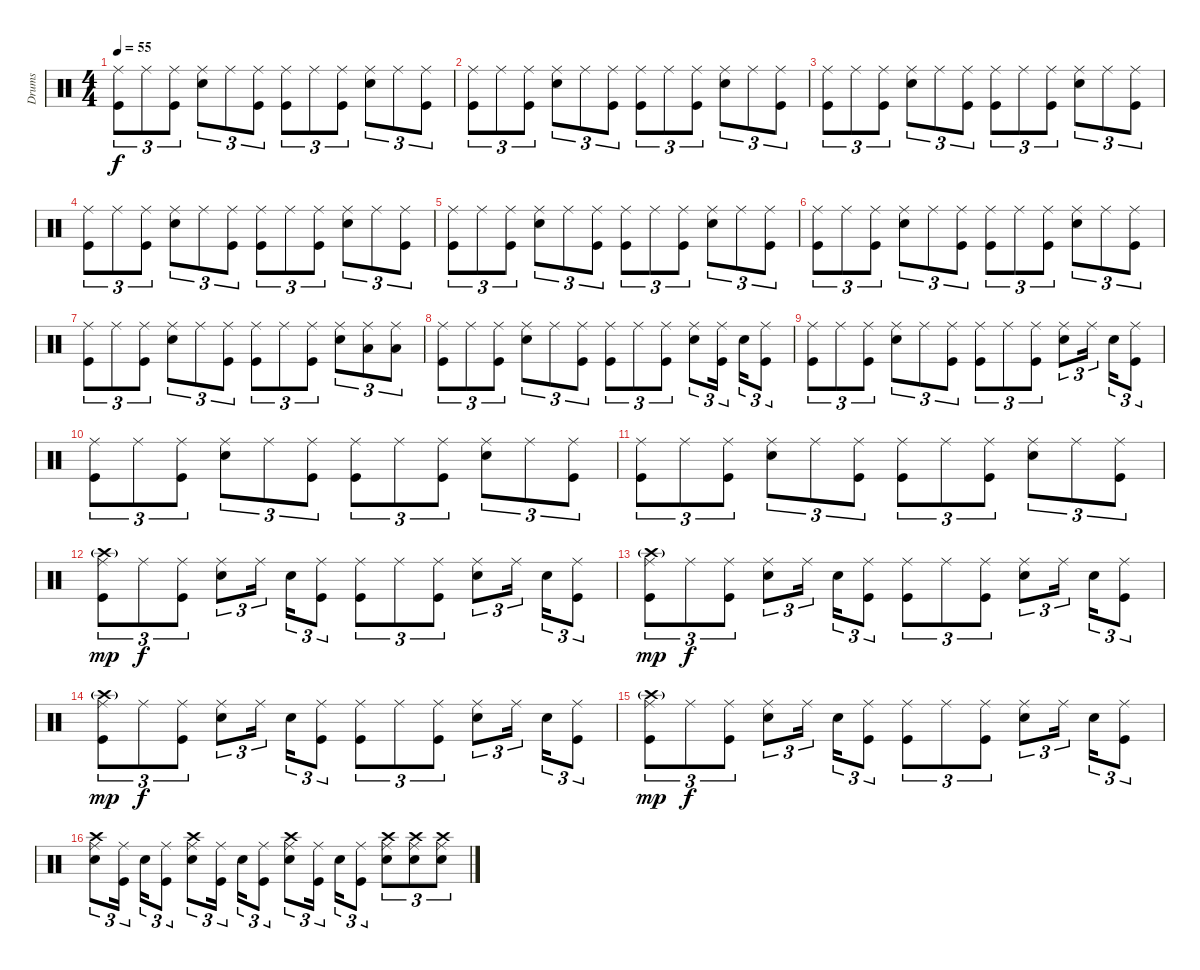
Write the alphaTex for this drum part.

\track ("Drums" "Drums") {instrument percussion}
\staff {score}
\articulation defaults
\ts (4 4)
\tempo 55
\clef neutral
\ks c
("Ride (middle)" "Kick (hit)").8{tu (3 2) dy f} "Ride (middle)".8{tu (3 2)} ("Ride (middle)" "Kick (hit)").8{tu (3 2)} ("Ride (middle)" "Snare (hit) 2").8{tu (3 2)} "Ride (middle)".8{tu (3 2)} ("Ride (middle)" "Kick (hit)").8{tu (3 2)} ("Ride (middle)" "Kick (hit)").8{tu (3 2)} "Ride (middle)".8{tu (3 2)} ("Ride (middle)" "Kick (hit)").8{tu (3 2)} ("Ride (middle)" "Snare (hit) 2").8{tu (3 2)} "Ride (middle)".8{tu (3 2)} ("Ride (middle)" "Kick (hit)").8{tu (3 2)} |
("Ride (middle)" "Kick (hit)").8{tu (3 2)} "Ride (middle)".8{tu (3 2)} ("Ride (middle)" "Kick (hit)").8{tu (3 2)} ("Ride (middle)" "Snare (hit) 2").8{tu (3 2)} "Ride (middle)".8{tu (3 2)} ("Ride (middle)" "Kick (hit)").8{tu (3 2)} ("Ride (middle)" "Kick (hit)").8{tu (3 2)} "Ride (middle)".8{tu (3 2)} ("Ride (middle)" "Kick (hit)").8{tu (3 2)} ("Ride (middle)" "Snare (hit) 2").8{tu (3 2)} "Ride (middle)".8{tu (3 2)} ("Ride (middle)" "Kick (hit)").8{tu (3 2)} |
("Ride (middle)" "Kick (hit)").8{tu (3 2)} "Ride (middle)".8{tu (3 2)} ("Ride (middle)" "Kick (hit)").8{tu (3 2)} ("Ride (middle)" "Snare (hit) 2").8{tu (3 2)} "Ride (middle)".8{tu (3 2)} ("Ride (middle)" "Kick (hit)").8{tu (3 2)} ("Ride (middle)" "Kick (hit)").8{tu (3 2)} "Ride (middle)".8{tu (3 2)} ("Ride (middle)" "Kick (hit)").8{tu (3 2)} ("Ride (middle)" "Snare (hit) 2").8{tu (3 2)} "Ride (middle)".8{tu (3 2)} ("Ride (middle)" "Kick (hit)").8{tu (3 2)} |
("Ride (middle)" "Kick (hit)").8{tu (3 2)} "Ride (middle)".8{tu (3 2)} ("Ride (middle)" "Kick (hit)").8{tu (3 2)} ("Ride (middle)" "Snare (hit) 2").8{tu (3 2)} "Ride (middle)".8{tu (3 2)} ("Ride (middle)" "Kick (hit)").8{tu (3 2)} ("Ride (middle)" "Kick (hit)").8{tu (3 2)} "Ride (middle)".8{tu (3 2)} ("Ride (middle)" "Kick (hit)").8{tu (3 2)} ("Ride (middle)" "Snare (hit) 2").8{tu (3 2)} "Ride (middle)".8{tu (3 2)} ("Ride (middle)" "Kick (hit)").8{tu (3 2)} |
("Ride (middle)" "Kick (hit)").8{tu (3 2)} "Ride (middle)".8{tu (3 2)} ("Ride (middle)" "Kick (hit)").8{tu (3 2)} ("Ride (middle)" "Snare (hit) 2").8{tu (3 2)} "Ride (middle)".8{tu (3 2)} ("Ride (middle)" "Kick (hit)").8{tu (3 2)} ("Ride (middle)" "Kick (hit)").8{tu (3 2)} "Ride (middle)".8{tu (3 2)} ("Ride (middle)" "Kick (hit)").8{tu (3 2)} ("Ride (middle)" "Snare (hit) 2").8{tu (3 2)} "Ride (middle)".8{tu (3 2)} ("Ride (middle)" "Kick (hit)").8{tu (3 2)} |
("Ride (middle)" "Kick (hit)").8{tu (3 2)} "Ride (middle)".8{tu (3 2)} ("Ride (middle)" "Kick (hit)").8{tu (3 2)} ("Ride (middle)" "Snare (hit) 2").8{tu (3 2)} "Ride (middle)".8{tu (3 2)} ("Ride (middle)" "Kick (hit)").8{tu (3 2)} ("Ride (middle)" "Kick (hit)").8{tu (3 2)} "Ride (middle)".8{tu (3 2)} ("Ride (middle)" "Kick (hit)").8{tu (3 2)} ("Ride (middle)" "Snare (hit) 2").8{tu (3 2)} "Ride (middle)".8{tu (3 2)} ("Ride (middle)" "Kick (hit)").8{tu (3 2)} |
("Ride (middle)" "Kick (hit)").8{tu (3 2)} "Ride (middle)".8{tu (3 2)} ("Ride (middle)" "Kick (hit)").8{tu (3 2)} ("Ride (middle)" "Snare (hit) 2").8{tu (3 2)} "Ride (middle)".8{tu (3 2)} ("Ride (middle)" "Kick (hit)").8{tu (3 2)} ("Ride (middle)" "Kick (hit)").8{tu (3 2)} "Ride (middle)".8{tu (3 2)} ("Ride (middle)" "Kick (hit)").8{tu (3 2)} ("Ride (middle)" "Snare (hit) 2").8{tu (3 2)} ("Ride (middle)" "Low Tom (hit)").8{tu (3 2)} ("Ride (middle)" "Low Floor Tom (hit)").8{tu (3 2)} |
("Ride (middle)" "Kick (hit)").8{tu (3 2)} "Ride (middle)".8{tu (3 2)} ("Ride (middle)" "Kick (hit)").8{tu (3 2)} ("Ride (middle)" "Snare (hit) 2").8{tu (3 2)} "Ride (middle)".8{tu (3 2)} ("Ride (middle)" "Kick (hit)").8{tu (3 2)} ("Ride (middle)" "Kick (hit)").8{tu (3 2)} "Ride (middle)".8{tu (3 2)} ("Ride (middle)" "Kick (hit)").8{tu (3 2)} ("Ride (middle)" "Snare (hit) 2").8{tu (3 2)} ("Ride (middle)" "Kick (hit)").16{tu (3 2)} "Snare (hit) 2".16{tu (3 2)} ("Ride (middle)" "Kick (hit)").8{tu (3 2)} |
("Ride (middle)" "Kick (hit)").8{tu (3 2)} "Ride (middle)".8{tu (3 2)} ("Ride (middle)" "Kick (hit)").8{tu (3 2)} ("Ride (middle)" "Snare (hit) 2").8{tu (3 2)} "Ride (middle)".8{tu (3 2)} ("Ride (middle)" "Kick (hit)").8{tu (3 2)} ("Ride (middle)" "Kick (hit)").8{tu (3 2)} "Ride (middle)".8{tu (3 2)} ("Ride (middle)" "Kick (hit)").8{tu (3 2)} ("Ride (middle)" "Snare (hit) 2").8{tu (3 2)} "Ride (middle)".16{tu (3 2)} "Snare (hit) 2".16{tu (3 2)} ("Ride (middle)" "Kick (hit)").8{tu (3 2)} |
("Ride (middle)" "Kick (hit)").8{tu (3 2)} "Ride (middle)".8{tu (3 2)} ("Ride (middle)" "Kick (hit)").8{tu (3 2)} ("Ride (middle)" "Snare (hit) 2").8{tu (3 2)} "Ride (middle)".8{tu (3 2)} ("Ride (middle)" "Kick (hit)").8{tu (3 2)} ("Ride (middle)" "Kick (hit)").8{tu (3 2)} "Ride (middle)".8{tu (3 2)} ("Ride (middle)" "Kick (hit)").8{tu (3 2)} ("Ride (middle)" "Snare (hit) 2").8{tu (3 2)} "Ride (middle)".8{tu (3 2)} ("Ride (middle)" "Kick (hit)").8{tu (3 2)} |
("Ride (middle)" "Kick (hit)").8{tu (3 2)} "Ride (middle)".8{tu (3 2)} ("Ride (middle)" "Kick (hit)").8{tu (3 2)} ("Ride (middle)" "Snare (hit) 2").8{tu (3 2)} "Ride (middle)".8{tu (3 2)} ("Ride (middle)" "Kick (hit)").8{tu (3 2)} ("Ride (middle)" "Kick (hit)").8{tu (3 2)} "Ride (middle)".8{tu (3 2)} ("Ride (middle)" "Kick (hit)").8{tu (3 2)} ("Ride (middle)" "Snare (hit) 2").8{tu (3 2)} "Ride (middle)".8{tu (3 2)} ("Ride (middle)" "Kick (hit)").8{tu (3 2)} |
\section ("" "")
("Ride (middle)" "Crash high (hit)"{g} "Kick (hit)").8{tu (3 2) dy mp} "Ride (middle)".8{tu (3 2) dy f} ("Ride (middle)" "Kick (hit)").8{tu (3 2)} ("Ride (middle)" "Snare (hit) 2").8{tu (3 2)} "Ride (middle)".16{tu (3 2)} "Snare (hit) 2".16{tu (3 2)} ("Ride (middle)" "Kick (hit)").8{tu (3 2)} ("Ride (middle)" "Kick (hit)").8{tu (3 2)} "Ride (middle)".8{tu (3 2)} ("Ride (middle)" "Kick (hit)").8{tu (3 2)} ("Ride (middle)" "Snare (hit) 2").8{tu (3 2)} "Ride (middle)".16{tu (3 2)} "Snare (hit) 2".16{tu (3 2)} ("Ride (middle)" "Kick (hit)").8{tu (3 2)} |
("Ride (middle)" "Crash high (hit)"{g} "Kick (hit)").8{tu (3 2) dy mp} "Ride (middle)".8{tu (3 2) dy f} ("Ride (middle)" "Kick (hit)").8{tu (3 2)} ("Ride (middle)" "Snare (hit) 2").8{tu (3 2)} "Ride (middle)".16{tu (3 2)} "Snare (hit) 2".16{tu (3 2)} ("Ride (middle)" "Kick (hit)").8{tu (3 2)} ("Ride (middle)" "Kick (hit)").8{tu (3 2)} "Ride (middle)".8{tu (3 2)} ("Ride (middle)" "Kick (hit)").8{tu (3 2)} ("Ride (middle)" "Snare (hit) 2").8{tu (3 2)} "Ride (middle)".16{tu (3 2)} "Snare (hit) 2".16{tu (3 2)} ("Ride (middle)" "Kick (hit)").8{tu (3 2)} |
("Ride (middle)" "Crash high (hit)"{g} "Kick (hit)").8{tu (3 2) dy mp} "Ride (middle)".8{tu (3 2) dy f} ("Ride (middle)" "Kick (hit)").8{tu (3 2)} ("Ride (middle)" "Snare (hit) 2").8{tu (3 2)} "Ride (middle)".16{tu (3 2)} "Snare (hit) 2".16{tu (3 2)} ("Ride (middle)" "Kick (hit)").8{tu (3 2)} ("Ride (middle)" "Kick (hit)").8{tu (3 2)} "Ride (middle)".8{tu (3 2)} ("Ride (middle)" "Kick (hit)").8{tu (3 2)} ("Ride (middle)" "Snare (hit) 2").8{tu (3 2)} "Ride (middle)".16{tu (3 2)} "Snare (hit) 2".16{tu (3 2)} ("Ride (middle)" "Kick (hit)").8{tu (3 2)} |
("Ride (middle)" "Crash high (hit)"{g} "Kick (hit)").8{tu (3 2) dy mp} "Ride (middle)".8{tu (3 2) dy f} ("Ride (middle)" "Kick (hit)").8{tu (3 2)} ("Ride (middle)" "Snare (hit) 2").8{tu (3 2)} "Ride (middle)".16{tu (3 2)} "Snare (hit) 2".16{tu (3 2)} ("Ride (middle)" "Kick (hit)").8{tu (3 2)} ("Ride (middle)" "Kick (hit)").8{tu (3 2)} "Ride (middle)".8{tu (3 2)} ("Ride (middle)" "Kick (hit)").8{tu (3 2)} ("Ride (middle)" "Snare (hit) 2").8{tu (3 2)} "Ride (middle)".16{tu (3 2)} "Snare (hit) 2".16{tu (3 2)} ("Ride (middle)" "Kick (hit)").8{tu (3 2)} |
("Ride (middle)" "Crash high (hit)" "Snare (hit) 2").8{tu (3 2)} ("Ride (middle)" "Kick (hit)").16{tu (3 2)} "Snare (hit) 2".16{tu (3 2)} ("Ride (middle)" "Kick (hit)").8{tu (3 2)} ("Ride (middle)" "Crash high (hit)" "Snare (hit) 2").8{tu (3 2)} ("Ride (middle)" "Kick (hit)").16{tu (3 2)} "Snare (hit) 2".16{tu (3 2)} ("Ride (middle)" "Kick (hit)").8{tu (3 2)} ("Ride (middle)" "Crash high (hit)" "Snare (hit) 2").8{tu (3 2)} ("Ride (middle)" "Kick (hit)").16{tu (3 2)} "Snare (hit) 2".16{tu (3 2)} ("Ride (middle)" "Kick (hit)").8{tu (3 2)} ("Ride (middle)" "Crash high (hit)" "Snare (hit) 2").8{tu (3 2)} ("Ride (middle)" "Crash high (hit)" "Snare (hit) 2").8{tu (3 2)} ("Ride (middle)" "Crash high (hit)" "Snare (hit) 2").8{tu (3 2)}
